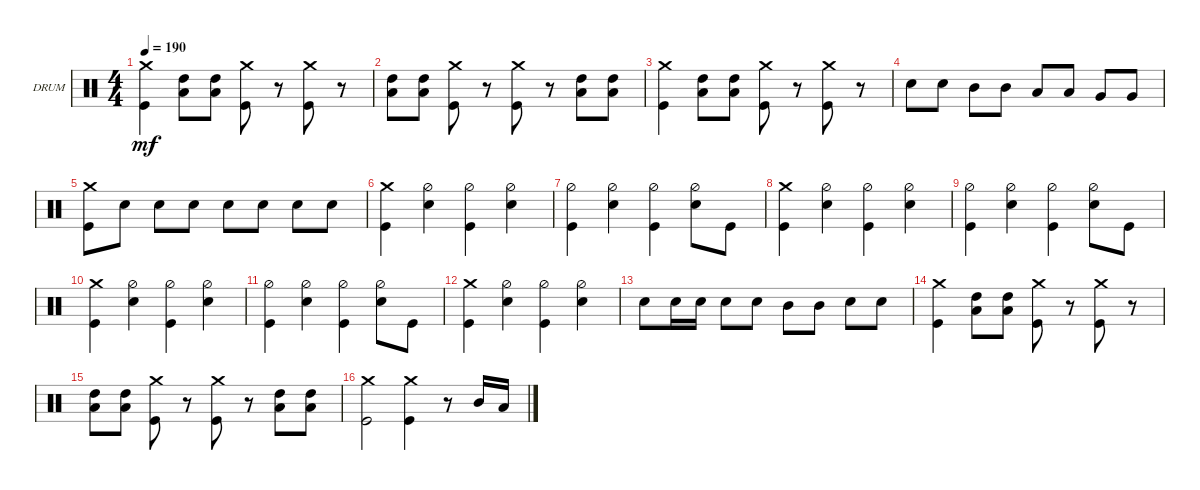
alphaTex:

\defaultSystemsLayout 4
\bracketExtendMode groupsimilarinstruments
\firstSystemTrackNameOrientation horizontal
\otherSystemsTrackNameOrientation horizontal
\track ("Drums" "DRUM") {instrument percussion}
\staff {score}
\articulation defaults
\ts (4 4)
\tempo 190
\clef neutral
\ks c
("Kick (hit)" "Crash medium (hit)").4{dy mf} ("High Tom (hit)" "Low Tom (hit)").8 ("High Tom (hit)" "Low Tom (hit)").8 ("Kick (hit)" "Crash medium (hit)").8 r.8 ("Kick (hit)" "Crash medium (hit)").8 r.8 |
("High Tom (hit)" "Low Tom (hit)").8 ("High Tom (hit)" "Low Tom (hit)").8 ("Kick (hit)" "Crash medium (hit)").8 r.8 ("Kick (hit)" "Crash medium (hit)").8 r.8 ("High Tom (hit)" "Low Tom (hit)").8 ("High Tom (hit)" "Low Tom (hit)").8 |
("Kick (hit)" "Crash medium (hit)").4 ("High Tom (hit)" "Low Tom (hit)").8 ("High Tom (hit)" "Low Tom (hit)").8 ("Kick (hit)" "Crash medium (hit)").8 r.8 ("Kick (hit)" "Crash medium (hit)").8 r.8 |
"Snare (hit) 2".8 "Snare (hit) 2".8 "Mid Tom (hit)".8 "Mid Tom (hit)".8 "Low Tom (hit)".8 "Low Tom (hit)".8 "Very Low Tom (hit)".8 "Very Low Tom (hit)".8 |
("Kick (hit)" "Crash medium (hit)").8 "Snare (hit) 2".8 "Snare (hit) 2".8 "Snare (hit) 2".8 "Snare (hit) 2".8 "Snare (hit) 2".8 "Snare (hit) 2".8 "Snare (hit) 2".8 |
("Kick (hit)" "Crash medium (hit)").4 ("Snare (hit) 2" "Hi-Hat (half)").4 ("Kick (hit)" "Hi-Hat (half)").4 ("Snare (hit) 2" "Hi-Hat (half)").4 |
("Kick (hit)" "Hi-Hat (half)").4 ("Snare (hit) 2" "Hi-Hat (half)").4 ("Kick (hit)" "Hi-Hat (half)").4 ("Snare (hit) 2" "Hi-Hat (half)").8 "Kick (hit)".8 |
("Kick (hit)" "Crash medium (hit)").4 ("Snare (hit) 2" "Hi-Hat (half)").4 ("Kick (hit)" "Hi-Hat (half)").4 ("Snare (hit) 2" "Hi-Hat (half)").4 |
("Kick (hit)" "Hi-Hat (half)").4 ("Snare (hit) 2" "Hi-Hat (half)").4 ("Kick (hit)" "Hi-Hat (half)").4 ("Snare (hit) 2" "Hi-Hat (half)").8 "Kick (hit)".8 |
("Kick (hit)" "Crash medium (hit)").4 ("Snare (hit) 2" "Hi-Hat (half)").4 ("Kick (hit)" "Hi-Hat (half)").4 ("Snare (hit) 2" "Hi-Hat (half)").4 |
("Kick (hit)" "Hi-Hat (half)").4 ("Snare (hit) 2" "Hi-Hat (half)").4 ("Kick (hit)" "Hi-Hat (half)").4 ("Snare (hit) 2" "Hi-Hat (half)").8 "Kick (hit)".8 |
("Kick (hit)" "Crash medium (hit)").4 ("Snare (hit) 2" "Hi-Hat (half)").4 ("Kick (hit)" "Hi-Hat (half)").4 ("Snare (hit) 2" "Hi-Hat (half)").4 |
"Snare (hit) 2".8 "Snare (hit) 2".16 "Snare (hit) 2".16 "Snare (hit) 2".8 "Snare (hit) 2".8 "Mid Tom (hit)".8 "Mid Tom (hit)".8 "Snare (hit) 2".8 "Snare (hit) 2".8 |
("Kick (hit)" "Crash medium (hit)").4 ("High Tom (hit)" "Low Tom (hit)").8 ("High Tom (hit)" "Low Tom (hit)").8 ("Kick (hit)" "Crash medium (hit)").8 r.8 ("Kick (hit)" "Crash medium (hit)").8 r.8 |
("High Tom (hit)" "Low Tom (hit)").8 ("High Tom (hit)" "Low Tom (hit)").8 ("Kick (hit)" "Crash medium (hit)").8 r.8 ("Kick (hit)" "Crash medium (hit)").8 r.8 ("High Tom (hit)" "Low Tom (hit)").8 ("High Tom (hit)" "Low Tom (hit)").8 |
("Kick (hit)" "Crash medium (hit)").2 ("Kick (hit)" "Crash medium (hit)").4 r.8 "Mid Tom (hit)".16 "Low Tom (hit)".16
